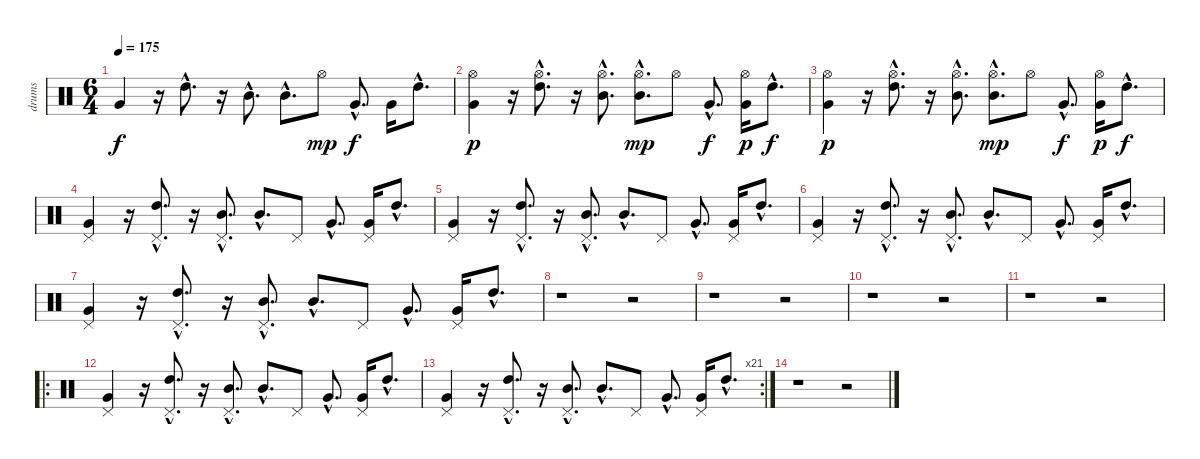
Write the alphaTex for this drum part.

\track ("drums" "drums") {instrument percussion}
\staff {score}
\articulation defaults
\ts (6 4)
\tempo 175
\clef neutral
\ks c "Very Low Tom (hit)".4{dy f}
r.16 "High Tom (hit)"{hac}.8{d} r.16 "Mid Tom (hit)"{hac}.8{d} "Mid Tom (hit)"{hac}.8{d} "Hi-Hat (open)".8{dy mp} "Very Low Tom (hit)"{hac}.8{d dy f} "Very Low Tom (hit)".16 "High Tom (hit)"{hac}.8{d} |
("Hi-Hat (open)" "Very Low Tom (hit)").4{dy p} r.16 ("Hi-Hat (open)"{hac} "High Tom (hit)"{hac}).8{d} r.16 ("Hi-Hat (open)"{hac} "Mid Tom (hit)"{hac}).8{d} ("Hi-Hat (open)"{hac} "Mid Tom (hit)"{hac}).8{d dy mp} "Hi-Hat (open)".8 "Very Low Tom (hit)"{hac}.8{d dy f} ("Hi-Hat (open)" "Very Low Tom (hit)").16{dy p} "High Tom (hit)"{hac}.8{d dy f} |
("Hi-Hat (open)" "Very Low Tom (hit)").4{dy p} r.16 ("Hi-Hat (open)"{hac} "High Tom (hit)"{hac}).8{d} r.16 ("Hi-Hat (open)"{hac} "Mid Tom (hit)"{hac}).8{d} ("Hi-Hat (open)"{hac} "Mid Tom (hit)"{hac}).8{d dy mp} "Hi-Hat (open)".8 "Very Low Tom (hit)"{hac}.8{d dy f} ("Hi-Hat (open)" "Very Low Tom (hit)").16{dy p} "High Tom (hit)"{hac}.8{d dy f} |
("Pedal Hi-Hat (hit)" "Very Low Tom (hit)").4 r.16 ("Pedal Hi-Hat (hit)"{hac} "High Tom (hit)"{hac}).8{d} r.16 ("Pedal Hi-Hat (hit)"{hac} "Mid Tom (hit)"{hac}).8{d} "Mid Tom (hit)"{hac}.8{d} "Pedal Hi-Hat (hit)".8 "Very Low Tom (hit)"{hac}.8{d} ("Pedal Hi-Hat (hit)" "Very Low Tom (hit)").16 "High Tom (hit)"{hac}.8{d} |
("Pedal Hi-Hat (hit)" "Very Low Tom (hit)").4 r.16 ("Pedal Hi-Hat (hit)"{hac} "High Tom (hit)"{hac}).8{d} r.16 ("Pedal Hi-Hat (hit)"{hac} "Mid Tom (hit)"{hac}).8{d} "Mid Tom (hit)"{hac}.8{d} "Pedal Hi-Hat (hit)".8 "Very Low Tom (hit)"{hac}.8{d} ("Pedal Hi-Hat (hit)" "Very Low Tom (hit)").16 "High Tom (hit)"{hac}.8{d} |
("Pedal Hi-Hat (hit)" "Very Low Tom (hit)").4 r.16 ("Pedal Hi-Hat (hit)"{hac} "High Tom (hit)"{hac}).8{d} r.16 ("Pedal Hi-Hat (hit)"{hac} "Mid Tom (hit)"{hac}).8{d} "Mid Tom (hit)"{hac}.8{d} "Pedal Hi-Hat (hit)".8 "Very Low Tom (hit)"{hac}.8{d} ("Pedal Hi-Hat (hit)" "Very Low Tom (hit)").16 "High Tom (hit)"{hac}.8{d} |
("Pedal Hi-Hat (hit)" "Very Low Tom (hit)").4 r.16 ("Pedal Hi-Hat (hit)"{hac} "High Tom (hit)"{hac}).8{d} r.16 ("Pedal Hi-Hat (hit)"{hac} "Mid Tom (hit)"{hac}).8{d} "Mid Tom (hit)"{hac}.8{d} "Pedal Hi-Hat (hit)".8 "Very Low Tom (hit)"{hac}.8{d} ("Pedal Hi-Hat (hit)" "Very Low Tom (hit)").16 "High Tom (hit)"{hac}.8{d} |
r.1 r.2 |
r.1 r.2 |
r.1 r.2 |
r.1 r.2 |
\ro
("Pedal Hi-Hat (hit)" "Very Low Tom (hit)").4 r.16 ("Pedal Hi-Hat (hit)"{hac} "High Tom (hit)"{hac}).8{d} r.16 ("Pedal Hi-Hat (hit)"{hac} "Mid Tom (hit)"{hac}).8{d} "Mid Tom (hit)"{hac}.8{d} "Pedal Hi-Hat (hit)".8 "Very Low Tom (hit)"{hac}.8{d} ("Pedal Hi-Hat (hit)" "Very Low Tom (hit)").16 "High Tom (hit)"{hac}.8{d} |
\rc 21
("Pedal Hi-Hat (hit)" "Very Low Tom (hit)").4 r.16 ("Pedal Hi-Hat (hit)"{hac} "High Tom (hit)"{hac}).8{d} r.16 ("Pedal Hi-Hat (hit)"{hac} "Mid Tom (hit)"{hac}).8{d} "Mid Tom (hit)"{hac}.8{d} "Pedal Hi-Hat (hit)".8 "Very Low Tom (hit)"{hac}.8{d} ("Pedal Hi-Hat (hit)" "Very Low Tom (hit)").16 "High Tom (hit)"{hac}.8{d} |
r.1 r.2
